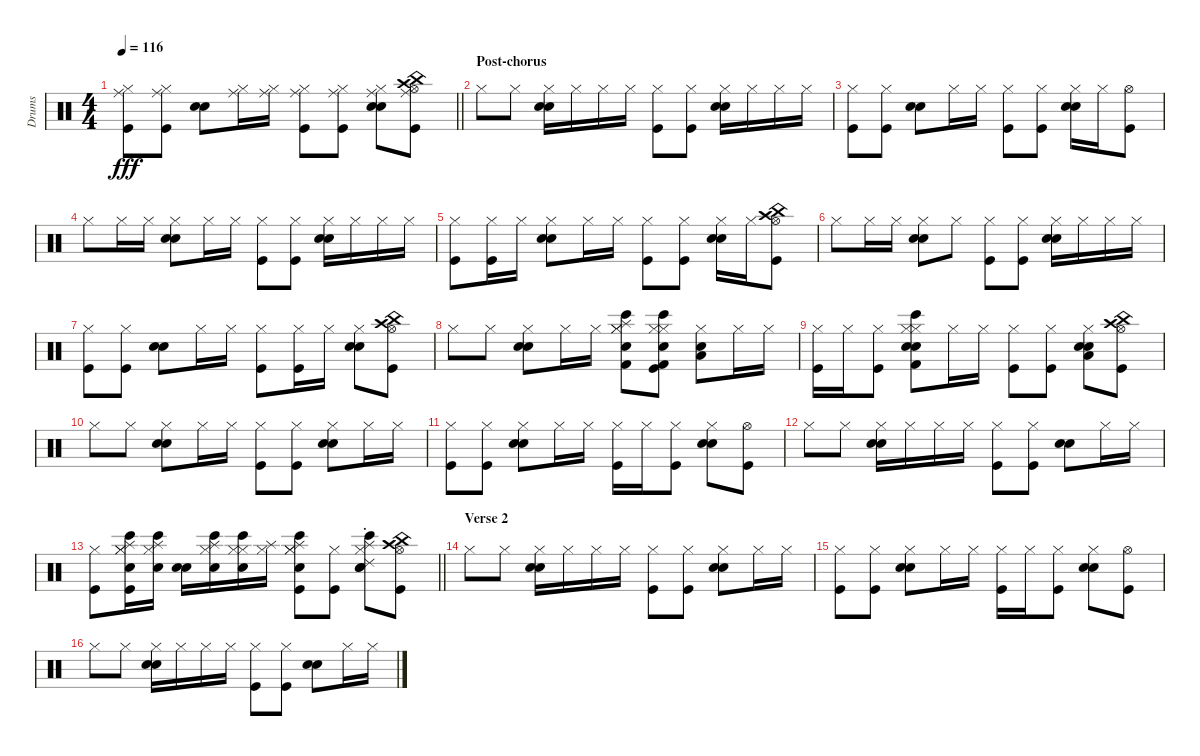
\track ("Drums" "Drums") {instrument percussion}
\staff {score}
\articulation defaults
\ts (4 4)
\tempo 116
\clef neutral
\barLineRight lightlight
\ks c
("Ride (middle)" "Hi-Hat (closed)" "Kick (hit)").8{dy fff} ("Ride (middle)" "Hi-Hat (closed)" "Kick (hit)").8 ("Snare (hit) 2" "Electric Snare (hit)").8 ("Ride (middle)" "Hi-Hat (closed)").16 ("Ride (middle)" "Hi-Hat (closed)").16 ("Ride (middle)" "Hi-Hat (closed)" "Kick (hit)").8 ("Ride (middle)" "Hi-Hat (closed)" "Kick (hit)").8 ("Ride (middle)" "Hi-Hat (closed)" "Snare (hit) 2" "Electric Snare (hit)").8 ("Ride (middle)" "Hi-Hat (open)" "Crash high (hit)" "China (hit)" "Kick (hit)").8 |
\section ("" "Post-chorus")
"Hi-Hat (closed)".8 "Hi-Hat (closed)".8 ("Snare (hit) 2" "Electric Snare (hit)" "Hi-Hat (closed)").16 "Hi-Hat (closed)".16 "Hi-Hat (closed)".16 "Hi-Hat (closed)".16 ("Hi-Hat (closed)" "Kick (hit)").8 ("Kick (hit)" "Hi-Hat (closed)").8 ("Snare (hit) 2" "Electric Snare (hit)" "Hi-Hat (closed)").16 "Hi-Hat (closed)".16 "Hi-Hat (closed)".16 "Hi-Hat (closed)".16 |
("Hi-Hat (closed)" "Kick (hit)").8 ("Hi-Hat (closed)" "Kick (hit)").8 ("Snare (hit) 2" "Electric Snare (hit)").8 "Hi-Hat (closed)".16 "Hi-Hat (closed)".16 ("Hi-Hat (closed)" "Kick (hit)").8 ("Kick (hit)" "Hi-Hat (closed)").8 ("Snare (hit) 2" "Electric Snare (hit)" "Hi-Hat (closed)").16 "Hi-Hat (closed)".16 ("Kick (hit)" "Hi-Hat (open)").8 |
"Hi-Hat (closed)".8 "Hi-Hat (closed)".16 "Hi-Hat (closed)".16 ("Snare (hit) 2" "Electric Snare (hit)" "Hi-Hat (closed)").8 "Hi-Hat (closed)".16 "Hi-Hat (closed)".16 ("Hi-Hat (closed)" "Kick (hit)").8 ("Hi-Hat (closed)" "Kick (hit)").8 ("Hi-Hat (closed)" "Snare (hit) 2" "Electric Snare (hit)").16 "Hi-Hat (closed)".16 "Hi-Hat (closed)".16 "Hi-Hat (closed)".16 |
("Hi-Hat (closed)" "Kick (hit)").8 ("Hi-Hat (closed)" "Kick (hit)").16 "Hi-Hat (closed)".16 ("Hi-Hat (closed)" "Snare (hit) 2" "Electric Snare (hit)").8 "Hi-Hat (closed)".16 "Hi-Hat (closed)".16 ("Kick (hit)" "Hi-Hat (closed)").8 ("Kick (hit)" "Hi-Hat (closed)").8 ("Snare (hit) 2" "Electric Snare (hit)" "Hi-Hat (closed)").16 "Hi-Hat (closed)".16 ("Crash high (hit)" "China (hit)" "Kick (hit)" "Hi-Hat (open)").8 |
"Hi-Hat (closed)".8 "Hi-Hat (closed)".16 "Hi-Hat (closed)".16 ("Snare (hit) 2" "Electric Snare (hit)" "Hi-Hat (closed)").8 "Hi-Hat (closed)".8 ("Hi-Hat (closed)" "Kick (hit)").8 ("Hi-Hat (closed)" "Kick (hit)").8 ("Hi-Hat (closed)" "Snare (hit) 2" "Electric Snare (hit)").16 "Hi-Hat (closed)".16 "Hi-Hat (closed)".16 "Hi-Hat (closed)".16 |
("Hi-Hat (closed)" "Kick (hit)").8 ("Hi-Hat (closed)" "Kick (hit)").8 ("Snare (hit) 2" "Electric Snare (hit)").8 "Hi-Hat (closed)".16 "Hi-Hat (closed)".16 ("Kick (hit)" "Hi-Hat (closed)").8 ("Kick (hit)" "Hi-Hat (closed)").16 "Hi-Hat (closed)".16 ("Snare (hit) 2" "Electric Snare (hit)" "Hi-Hat (closed)").8 ("Kick (hit)" "Crash high (hit)" "China (hit)" "Hi-Hat (open)").8 |
"Hi-Hat (closed)".8 "Hi-Hat (closed)".8 ("Snare (hit) 2" "Electric Snare (hit)" "Hi-Hat (closed)").8 "Hi-Hat (closed)".16 "Hi-Hat (closed)".16 ("Hi-Hat (closed)" "Bongo High (hit)" "Snare (hit) 2" "Kick (hit) 2" "Splash (hit)" "Hi-Hat (closed)").8 ("Hi-Hat (closed)" "Hi-Hat (closed)" "Kick (hit)" "Bongo High (hit)" "Snare (hit) 2" "Kick (hit) 2").8 ("Snare (hit) 2" "Low Floor Tom (hit)" "Hi-Hat (closed)").8 "Hi-Hat (closed)".16 "Hi-Hat (closed)".16 |
("Kick (hit)" "Hi-Hat (closed)").16 "Hi-Hat (closed)".16 ("Hi-Hat (closed)" "Kick (hit)").8 ("Electric Snare (hit)" "Hi-Hat (closed)" "Bongo High (hit)" "Snare (hit) 2" "Kick (hit) 2" "Hi-Hat (closed)").8 "Hi-Hat (closed)".16 "Hi-Hat (closed)".16 ("Kick (hit)" "Hi-Hat (closed)").8 ("Kick (hit)" "Hi-Hat (closed)").8 ("Snare (hit) 2" "Electric Snare (hit)" "Hi-Hat (closed)" "Low Floor Tom (hit)").8 ("Crash high (hit)" "China (hit)" "Hi-Hat (open)" "Kick (hit)").8 |
"Hi-Hat (closed)".8 "Hi-Hat (closed)".8 ("Snare (hit) 2" "Electric Snare (hit)" "Hi-Hat (closed)").8 "Hi-Hat (closed)".16 "Hi-Hat (closed)".16 ("Hi-Hat (closed)" "Kick (hit)").8 ("Hi-Hat (closed)" "Kick (hit)").8 ("Snare (hit) 2" "Electric Snare (hit)" "Hi-Hat (closed)").8 "Hi-Hat (closed)".16 "Hi-Hat (closed)".16 |
("Hi-Hat (closed)" "Kick (hit)").8 ("Hi-Hat (closed)" "Kick (hit)").8 ("Hi-Hat (closed)" "Snare (hit) 2" "Electric Snare (hit)").8 "Hi-Hat (closed)".16 "Hi-Hat (closed)".16 ("Hi-Hat (closed)" "Kick (hit)").16 "Hi-Hat (closed)".16 ("Hi-Hat (closed)" "Kick (hit)").8 ("Snare (hit) 2" "Electric Snare (hit)" "Hi-Hat (closed)").8 ("Hi-Hat (open)" "Kick (hit)").8 |
"Hi-Hat (closed)".8 "Hi-Hat (closed)".8 ("Snare (hit) 2" "Electric Snare (hit)" "Hi-Hat (closed)").16 "Hi-Hat (closed)".16 "Hi-Hat (closed)".16 "Hi-Hat (closed)".16 ("Hi-Hat (closed)" "Kick (hit)").8 ("Hi-Hat (closed)" "Kick (hit)").8 ("Snare (hit) 2" "Electric Snare (hit)").8 "Hi-Hat (closed)".16 "Hi-Hat (closed)".16 |
\barLineRight lightlight
("Hi-Hat (closed)" "Kick (hit)").8 ("Hi-Hat (closed)" "Snare (hit) 2" "Bongo High (hit)" "Splash (hit)" "Hi-Hat (closed)" "Kick (hit)").16 ("Snare (hit) 2" "Hi-Hat (closed)" "Bongo High (hit)" "Splash (hit)").16 ("Snare (hit) 2" "Electric Snare (hit)").16 ("Hi-Hat (closed)" "Bongo High (hit)" "Snare (hit) 2" "Splash (hit)").16 ("Hi-Hat (closed)" "Snare (hit) 2" "Bongo High (hit)" "Hi-Hat (closed)").16 ("Splash (hit)" "Hi-Hat (closed)").16 ("Hi-Hat (closed)" "Bongo High (hit)" "Snare (hit) 2" "Hi-Hat (closed)" "Splash (hit)" "Kick (hit)").8 ("Kick (hit)" "Hi-Hat (closed)").8 ("Snare (hit) 2" "Electric Snare (hit)" "Hi-Hat (closed)" "Bongo High (hit)" "Ride (choke) 2" "Splash (hit)").8 ("Crash high (hit)" "China (hit)" "Hi-Hat (open)" "Kick (hit)").8 |
\section ("" "Verse 2")
"Hi-Hat (closed)".8 "Hi-Hat (closed)".8 ("Snare (hit) 2" "Electric Snare (hit)" "Hi-Hat (closed)").16 "Hi-Hat (closed)".16 "Hi-Hat (closed)".16 "Hi-Hat (closed)".16 ("Hi-Hat (closed)" "Kick (hit)").8 ("Hi-Hat (closed)" "Kick (hit)").8 ("Snare (hit) 2" "Electric Snare (hit)" "Hi-Hat (closed)").8 "Hi-Hat (closed)".16 "Hi-Hat (closed)".16 |
("Hi-Hat (closed)" "Kick (hit)").8 ("Hi-Hat (closed)" "Kick (hit)").8 ("Hi-Hat (closed)" "Snare (hit) 2" "Electric Snare (hit)").8 "Hi-Hat (closed)".16 "Hi-Hat (closed)".16 ("Hi-Hat (closed)" "Kick (hit)").16 "Hi-Hat (closed)".16 ("Hi-Hat (closed)" "Kick (hit)").8 ("Hi-Hat (closed)" "Snare (hit) 2" "Electric Snare (hit)").8 ("Hi-Hat (open)" "Kick (hit)").8 |
"Hi-Hat (closed)".8 "Hi-Hat (closed)".8 ("Snare (hit) 2" "Electric Snare (hit)" "Hi-Hat (closed)").16 "Hi-Hat (closed)".16 "Hi-Hat (closed)".16 "Hi-Hat (closed)".16 ("Hi-Hat (closed)" "Kick (hit)").8 ("Hi-Hat (closed)" "Kick (hit)").8 ("Snare (hit) 2" "Electric Snare (hit)").8 "Hi-Hat (closed)".16 "Hi-Hat (closed)".16
